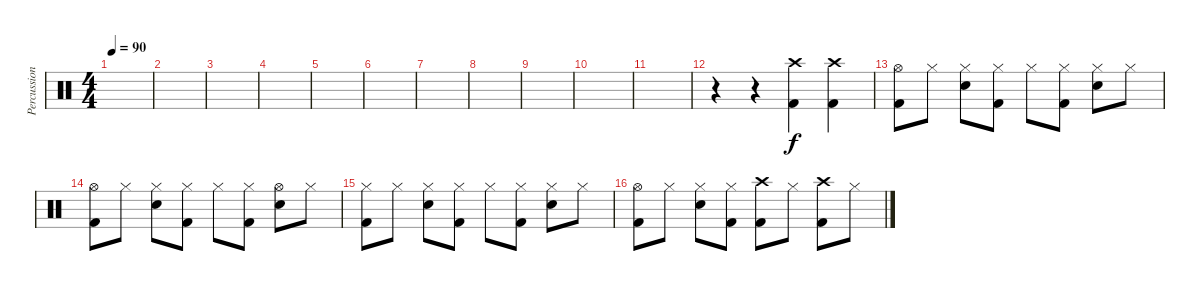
\track ("Percussions" "Percussion") {instrument percussion}
\staff {score}
\articulation defaults
\ts (4 4)
\tempo 90
\clef neutral
\ks c
|
|
|
|
|
|
|
|
|
|
|
r.4 r.4 ("Kick (hit) 2" "Crash high (hit)").4 ("Kick (hit) 2" "Crash high (hit)").4 |
("Kick (hit) 2" "Hi-Hat (open)").8 "Hi-Hat (closed)".8 ("Snare (hit) 2" "Hi-Hat (closed)").8 ("Kick (hit) 2" "Hi-Hat (closed)").8 "Hi-Hat (closed)".8 ("Kick (hit) 2" "Hi-Hat (closed)").8 ("Snare (hit) 2" "Hi-Hat (closed)").8 "Hi-Hat (closed)".8 |
("Kick (hit) 2" "Hi-Hat (open)").8 "Hi-Hat (closed)".8 ("Snare (hit) 2" "Hi-Hat (closed)").8 ("Kick (hit) 2" "Hi-Hat (closed)").8 "Hi-Hat (closed)".8 ("Kick (hit) 2" "Hi-Hat (closed)").8 ("Snare (hit) 2" "Hi-Hat (open)").8 "Hi-Hat (closed)".8 |
("Kick (hit) 2" "Hi-Hat (closed)").8 "Hi-Hat (closed)".8 ("Snare (hit) 2" "Hi-Hat (closed)").8 ("Kick (hit) 2" "Hi-Hat (closed)").8 "Hi-Hat (closed)".8 ("Kick (hit) 2" "Hi-Hat (closed)").8 ("Snare (hit) 2" "Hi-Hat (closed)").8 "Hi-Hat (closed)".8 |
("Kick (hit) 2" "Hi-Hat (open)").8 "Hi-Hat (closed)".8 ("Snare (hit) 2" "Hi-Hat (closed)").8 ("Kick (hit) 2" "Hi-Hat (closed)").8 ("Kick (hit) 2" "Crash high (hit)").8 "Hi-Hat (closed)".8 ("Kick (hit) 2" "Crash high (hit)").8 "Hi-Hat (closed)".8
